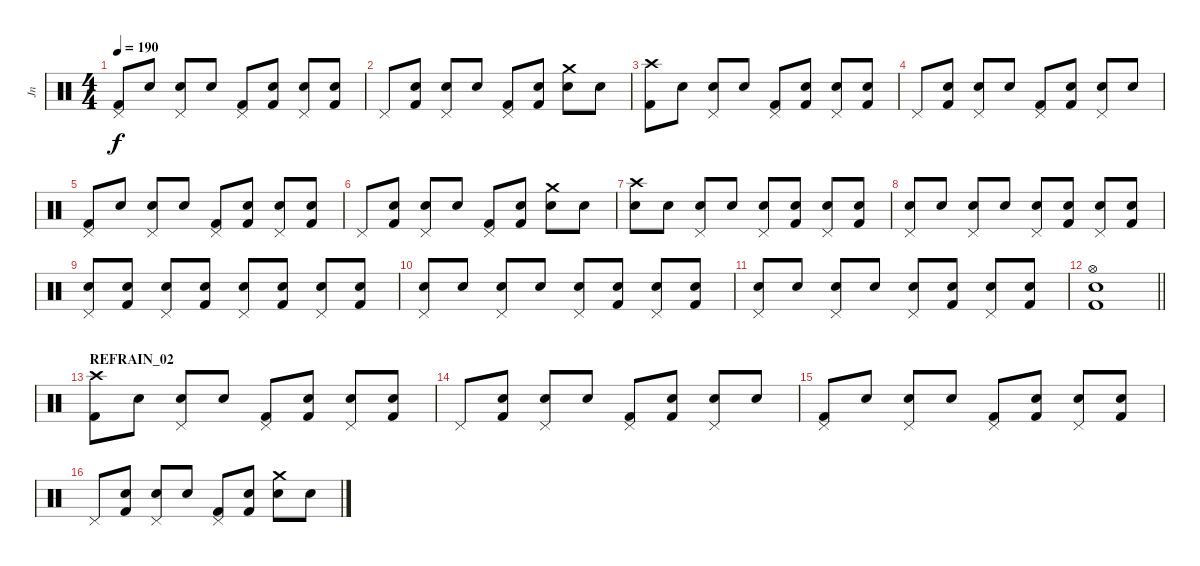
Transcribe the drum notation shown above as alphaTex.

\track ("Jn" "Jn") {instrument percussion}
\staff {score}
\articulation defaults
\ts (4 4)
\tempo 190
\clef neutral
\ks c
("Pedal Hi-Hat (hit)" "Kick (hit) 2").8{dy f} "Snare (hit)".8 ("Pedal Hi-Hat (hit)" "Electric Snare (hit)").8 "Snare (hit)".8 ("Pedal Hi-Hat (hit)" "Kick (hit) 2").8 ("Snare (hit)" "Kick (hit) 2").8 ("Pedal Hi-Hat (hit)" "Electric Snare (hit)").8 ("Snare (hit)" "Kick (hit) 2").8 |
"Pedal Hi-Hat (hit)".8 ("Snare (hit)" "Kick (hit) 2").8 ("Pedal Hi-Hat (hit)" "Electric Snare (hit)").8 "Snare (hit)".8 ("Pedal Hi-Hat (hit)" "Kick (hit) 2").8 ("Snare (hit)" "Kick (hit) 2").8 ("Crash medium (hit)" "Electric Snare (hit)").8 "Snare (hit)".8 |
("Crash high (hit)" "Kick (hit) 2").8 "Snare (hit)".8 ("Pedal Hi-Hat (hit)" "Electric Snare (hit)").8 "Snare (hit)".8 ("Pedal Hi-Hat (hit)" "Kick (hit) 2").8 ("Snare (hit)" "Kick (hit) 2").8 ("Pedal Hi-Hat (hit)" "Electric Snare (hit)").8 ("Snare (hit)" "Kick (hit) 2").8 |
"Pedal Hi-Hat (hit)".8 ("Snare (hit)" "Kick (hit) 2").8 ("Pedal Hi-Hat (hit)" "Electric Snare (hit)").8 "Snare (hit)".8 ("Pedal Hi-Hat (hit)" "Kick (hit) 2").8 ("Snare (hit)" "Kick (hit) 2").8 ("Pedal Hi-Hat (hit)" "Electric Snare (hit)").8 "Snare (hit)".8 |
("Pedal Hi-Hat (hit)" "Kick (hit) 2").8 "Snare (hit)".8 ("Pedal Hi-Hat (hit)" "Electric Snare (hit)").8 "Snare (hit)".8 ("Pedal Hi-Hat (hit)" "Kick (hit) 2").8 ("Snare (hit)" "Kick (hit) 2").8 ("Pedal Hi-Hat (hit)" "Electric Snare (hit)").8 ("Snare (hit)" "Kick (hit) 2").8 |
"Pedal Hi-Hat (hit)".8 ("Snare (hit)" "Kick (hit) 2").8 ("Pedal Hi-Hat (hit)" "Electric Snare (hit)").8 "Snare (hit)".8 ("Pedal Hi-Hat (hit)" "Kick (hit) 2").8 ("Snare (hit)" "Kick (hit) 2").8 ("Crash medium (hit)" "Electric Snare (hit)").8 "Snare (hit)".8 |
("Crash high (hit)" "Electric Snare (hit)").8 "Snare (hit)".8 ("Pedal Hi-Hat (hit)" "Electric Snare (hit)").8 "Snare (hit)".8 ("Pedal Hi-Hat (hit)" "Electric Snare (hit)").8 ("Snare (hit)" "Kick (hit) 2").8 ("Pedal Hi-Hat (hit)" "Electric Snare (hit)").8 ("Snare (hit)" "Kick (hit) 2").8 |
("Pedal Hi-Hat (hit)" "Electric Snare (hit)").8 "Snare (hit)".8 ("Pedal Hi-Hat (hit)" "Electric Snare (hit)").8 "Snare (hit)".8 ("Pedal Hi-Hat (hit)" "Electric Snare (hit)").8 ("Snare (hit)" "Kick (hit) 2").8 ("Pedal Hi-Hat (hit)" "Electric Snare (hit)").8 ("Snare (hit)" "Kick (hit) 2").8 |
("Pedal Hi-Hat (hit)" "Electric Snare (hit)").8 ("Snare (hit)" "Kick (hit) 2").8 ("Pedal Hi-Hat (hit)" "Electric Snare (hit)").8 ("Snare (hit)" "Kick (hit) 2").8 ("Pedal Hi-Hat (hit)" "Electric Snare (hit)").8 ("Snare (hit)" "Kick (hit) 2").8 ("Pedal Hi-Hat (hit)" "Electric Snare (hit)").8 ("Snare (hit)" "Kick (hit) 2").8 |
("Pedal Hi-Hat (hit)" "Electric Snare (hit)").8 "Snare (hit)".8 ("Pedal Hi-Hat (hit)" "Electric Snare (hit)").8 "Snare (hit)".8 ("Pedal Hi-Hat (hit)" "Electric Snare (hit)").8 ("Snare (hit)" "Kick (hit) 2").8 ("Pedal Hi-Hat (hit)" "Electric Snare (hit)").8 ("Snare (hit)" "Kick (hit) 2").8 |
("Pedal Hi-Hat (hit)" "Electric Snare (hit)").8 "Snare (hit)".8 ("Pedal Hi-Hat (hit)" "Electric Snare (hit)").8 "Snare (hit)".8 ("Pedal Hi-Hat (hit)" "Electric Snare (hit)").8 ("Snare (hit)" "Kick (hit) 2").8 ("Pedal Hi-Hat (hit)" "Electric Snare (hit)").8 ("Snare (hit)" "Kick (hit) 2").8 |
\barLineRight lightlight
("Kick (hit) 2" "Electric Snare (hit)" "Hi-Hat (open)").1 |
\section ("" "REFRAIN_02")
("Crash high (hit)" "Kick (hit) 2").8 "Snare (hit)".8 ("Pedal Hi-Hat (hit)" "Electric Snare (hit)").8 "Snare (hit)".8 ("Pedal Hi-Hat (hit)" "Kick (hit) 2").8 ("Snare (hit)" "Kick (hit) 2").8 ("Pedal Hi-Hat (hit)" "Electric Snare (hit)").8 ("Snare (hit)" "Kick (hit) 2").8 |
"Pedal Hi-Hat (hit)".8 ("Snare (hit)" "Kick (hit) 2").8 ("Pedal Hi-Hat (hit)" "Electric Snare (hit)").8 "Snare (hit)".8 ("Pedal Hi-Hat (hit)" "Kick (hit) 2").8 ("Snare (hit)" "Kick (hit) 2").8 ("Pedal Hi-Hat (hit)" "Electric Snare (hit)").8 "Snare (hit)".8 |
("Pedal Hi-Hat (hit)" "Kick (hit) 2").8 "Snare (hit)".8 ("Pedal Hi-Hat (hit)" "Electric Snare (hit)").8 "Snare (hit)".8 ("Pedal Hi-Hat (hit)" "Kick (hit) 2").8 ("Snare (hit)" "Kick (hit) 2").8 ("Pedal Hi-Hat (hit)" "Electric Snare (hit)").8 ("Snare (hit)" "Kick (hit) 2").8 |
"Pedal Hi-Hat (hit)".8 ("Snare (hit)" "Kick (hit) 2").8 ("Pedal Hi-Hat (hit)" "Electric Snare (hit)").8 "Snare (hit)".8 ("Pedal Hi-Hat (hit)" "Kick (hit) 2").8 ("Snare (hit)" "Kick (hit) 2").8 ("Crash medium (hit)" "Electric Snare (hit)").8 "Snare (hit)".8
